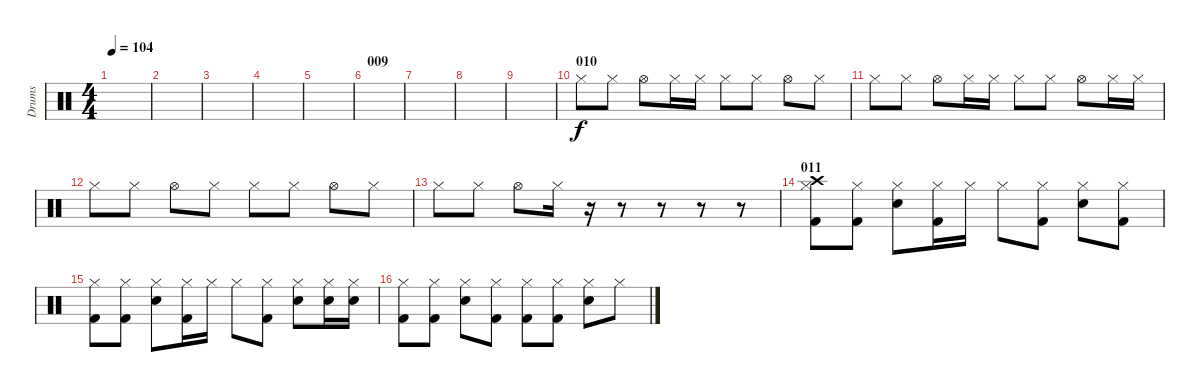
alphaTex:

\track ("Drums" "Drums") {instrument percussion}
\staff {score}
\articulation defaults
\ts (4 4)
\tempo 104
\clef neutral
\ks c
|
|
|
|
|
\section ("" "009 ")
|
|
|
|
\section ("" "010")
"Hi-Hat (closed)".8{dy f} "Hi-Hat (closed)".8 "Hi-Hat (open)".8 "Hi-Hat (closed)".16 "Hi-Hat (closed)".16 "Hi-Hat (closed)".8 "Hi-Hat (closed)".8 "Hi-Hat (open)".8 "Hi-Hat (closed)".8 |
"Hi-Hat (closed)".8 "Hi-Hat (closed)".8 "Hi-Hat (open)".8 "Hi-Hat (closed)".16 "Hi-Hat (closed)".16 "Hi-Hat (closed)".8 "Hi-Hat (closed)".8 "Hi-Hat (open)".8 "Hi-Hat (closed)".16 "Hi-Hat (closed)".16 |
"Hi-Hat (closed)".8 "Hi-Hat (closed)".8 "Hi-Hat (open)".8 "Hi-Hat (closed)".8 "Hi-Hat (closed)".8 "Hi-Hat (closed)".8 "Hi-Hat (open)".8 "Hi-Hat (closed)".8 |
"Hi-Hat (closed)".8 "Hi-Hat (closed)".8 "Hi-Hat (open)".8 "Hi-Hat (closed)".16 r.16 r.8 r.8 r.8 r.8 |
\section ("" "011")
("Hi-Hat (closed)" "Kick (hit) 2" "Crash high (hit)").8 ("Hi-Hat (closed)" "Kick (hit) 2").8 ("Hi-Hat (closed)" "Electric Snare (hit)").8 ("Hi-Hat (closed)" "Kick (hit) 2").16 "Hi-Hat (closed)".16 "Hi-Hat (closed)".8 ("Hi-Hat (closed)" "Kick (hit) 2").8 ("Hi-Hat (closed)" "Electric Snare (hit)").8 ("Hi-Hat (closed)" "Kick (hit) 2").8 |
("Hi-Hat (closed)" "Kick (hit) 2").8 ("Hi-Hat (closed)" "Kick (hit) 2").8 ("Hi-Hat (closed)" "Electric Snare (hit)").8 ("Hi-Hat (closed)" "Kick (hit) 2").16 "Hi-Hat (closed)".16 "Hi-Hat (closed)".8 ("Hi-Hat (closed)" "Kick (hit) 2").8 ("Hi-Hat (closed)" "Electric Snare (hit)").8 ("Hi-Hat (closed)" "Electric Snare (hit)").16 ("Hi-Hat (closed)" "Electric Snare (hit)").16 |
("Hi-Hat (closed)" "Kick (hit) 2").8 ("Hi-Hat (closed)" "Kick (hit) 2").8 ("Hi-Hat (closed)" "Electric Snare (hit)").8 ("Hi-Hat (closed)" "Kick (hit) 2").8 ("Hi-Hat (closed)" "Kick (hit) 2").8 ("Hi-Hat (closed)" "Kick (hit) 2").8 ("Hi-Hat (closed)" "Electric Snare (hit)").8 "Hi-Hat (closed)".8
